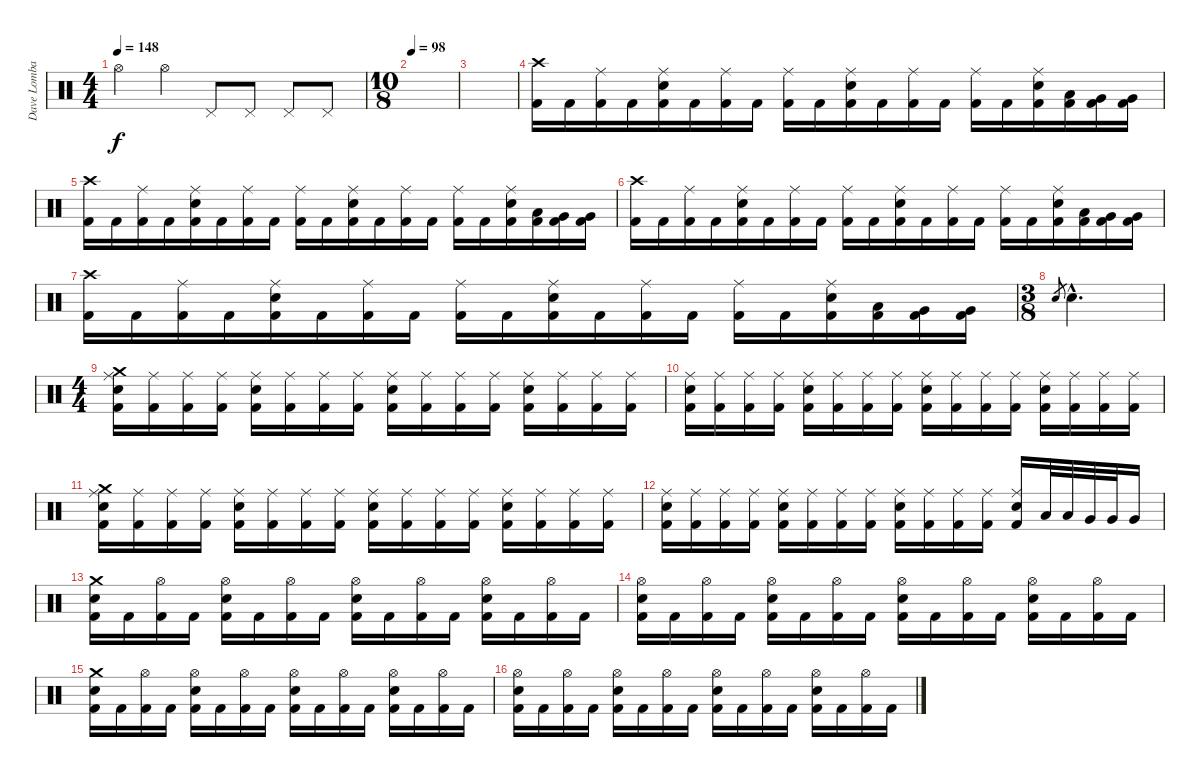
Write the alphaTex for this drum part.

\track ("Dave Lombardo" "Dave Lomba") {instrument percussion}
\staff {score}
\articulation defaults
\ts (4 4)
\tempo 148
\tempo 98
\tempo 148
\clef neutral
\ks c "Hi-Hat (open)".4{dy f} "Hi-Hat (open)".4 "Pedal Hi-Hat (hit)".8 "Pedal Hi-Hat (hit)".8 "Pedal Hi-Hat (hit)".8 "Pedal Hi-Hat (hit)".8
|
\ts (10 8)
\tempo 98
|
|
("Crash high (hit)" "Kick (hit) 2").16 "Kick (hit) 2".16 ("Ride (middle)" "Kick (hit) 2").16 "Kick (hit) 2".16 ("Electric Snare (hit)" "Ride (middle)" "Kick (hit) 2").16 "Kick (hit) 2".16 ("Ride (middle)" "Kick (hit) 2").16 "Kick (hit) 2".16 ("Ride (middle)" "Kick (hit) 2").16 "Kick (hit) 2".16 ("Electric Snare (hit)" "Ride (middle)" "Kick (hit) 2").16 "Kick (hit) 2".16 ("Ride (middle)" "Kick (hit) 2").16 "Kick (hit) 2".16 ("Ride (middle)" "Kick (hit) 2").16 "Kick (hit) 2".16 ("Electric Snare (hit)" "Ride (middle)" "Kick (hit) 2").16 ("Low Tom (hit)" "Kick (hit) 2").16 ("Very Low Tom (hit)" "Kick (hit) 2").16 ("Very Low Tom (hit)" "Kick (hit) 2").16 |
("Crash high (hit)" "Kick (hit) 2").16 "Kick (hit) 2".16 ("Ride (middle)" "Kick (hit) 2").16 "Kick (hit) 2".16 ("Electric Snare (hit)" "Ride (middle)" "Kick (hit) 2").16 "Kick (hit) 2".16 ("Ride (middle)" "Kick (hit) 2").16 "Kick (hit) 2".16 ("Ride (middle)" "Kick (hit) 2").16 "Kick (hit) 2".16 ("Electric Snare (hit)" "Ride (middle)" "Kick (hit) 2").16 "Kick (hit) 2".16 ("Ride (middle)" "Kick (hit) 2").16 "Kick (hit) 2".16 ("Ride (middle)" "Kick (hit) 2").16 "Kick (hit) 2".16 ("Electric Snare (hit)" "Ride (middle)" "Kick (hit) 2").16 ("Low Tom (hit)" "Kick (hit) 2").16 ("Very Low Tom (hit)" "Kick (hit) 2").16 ("Very Low Tom (hit)" "Kick (hit) 2").16 |
("Crash high (hit)" "Kick (hit) 2").16 "Kick (hit) 2".16 ("Ride (middle)" "Kick (hit) 2").16 "Kick (hit) 2".16 ("Electric Snare (hit)" "Ride (middle)" "Kick (hit) 2").16 "Kick (hit) 2".16 ("Ride (middle)" "Kick (hit) 2").16 "Kick (hit) 2".16 ("Ride (middle)" "Kick (hit) 2").16 "Kick (hit) 2".16 ("Electric Snare (hit)" "Ride (middle)" "Kick (hit) 2").16 "Kick (hit) 2".16 ("Ride (middle)" "Kick (hit) 2").16 "Kick (hit) 2".16 ("Ride (middle)" "Kick (hit) 2").16 "Kick (hit) 2".16 ("Electric Snare (hit)" "Ride (middle)" "Kick (hit) 2").16 ("Low Tom (hit)" "Kick (hit) 2").16 ("Very Low Tom (hit)" "Kick (hit) 2").16 ("Very Low Tom (hit)" "Kick (hit) 2").16 |
("Crash high (hit)" "Kick (hit) 2").16 "Kick (hit) 2".16 ("Ride (middle)" "Kick (hit) 2").16 "Kick (hit) 2".16 ("Electric Snare (hit)" "Ride (middle)" "Kick (hit) 2").16 "Kick (hit) 2".16 ("Ride (middle)" "Kick (hit) 2").16 "Kick (hit) 2".16 ("Ride (middle)" "Kick (hit) 2").16 "Kick (hit) 2".16 ("Electric Snare (hit)" "Ride (middle)" "Kick (hit) 2").16 "Kick (hit) 2".16 ("Ride (middle)" "Kick (hit) 2").16 "Kick (hit) 2".16 ("Ride (middle)" "Kick (hit) 2").16 "Kick (hit) 2".16 ("Electric Snare (hit)" "Ride (middle)" "Kick (hit) 2").16 ("Low Tom (hit)" "Kick (hit) 2").16 ("Very Low Tom (hit)" "Kick (hit) 2").16 ("Very Low Tom (hit)" "Kick (hit) 2").16 |
\ts (3 8)
"Electric Snare (hit)".8{gr} "Electric Snare (hit)"{hac}.4{d} |
\ts (4 4)
("Crash medium (hit)" "Electric Snare (hit)" "Ride (middle)" "Kick (hit) 2").16 ("Ride (middle)" "Kick (hit) 2").16 ("Ride (middle)" "Kick (hit) 2").16 ("Ride (middle)" "Kick (hit) 2").16 ("Electric Snare (hit)" "Ride (middle)" "Kick (hit) 2").16 ("Ride (middle)" "Kick (hit) 2").16 ("Ride (middle)" "Kick (hit) 2").16 ("Ride (middle)" "Kick (hit) 2").16 ("Electric Snare (hit)" "Ride (middle)" "Kick (hit) 2").16 ("Ride (middle)" "Kick (hit) 2").16 ("Ride (middle)" "Kick (hit) 2").16 ("Ride (middle)" "Kick (hit) 2").16 ("Electric Snare (hit)" "Ride (middle)" "Kick (hit) 2").16 ("Ride (middle)" "Kick (hit) 2").16 ("Ride (middle)" "Kick (hit) 2").16 ("Ride (middle)" "Kick (hit) 2").16 |
("Electric Snare (hit)" "Ride (middle)" "Kick (hit) 2").16 ("Ride (middle)" "Kick (hit) 2").16 ("Ride (middle)" "Kick (hit) 2").16 ("Ride (middle)" "Kick (hit) 2").16 ("Electric Snare (hit)" "Ride (middle)" "Kick (hit) 2").16 ("Ride (middle)" "Kick (hit) 2").16 ("Ride (middle)" "Kick (hit) 2").16 ("Ride (middle)" "Kick (hit) 2").16 ("Electric Snare (hit)" "Ride (middle)" "Kick (hit) 2").16 ("Ride (middle)" "Kick (hit) 2").16 ("Ride (middle)" "Kick (hit) 2").16 ("Ride (middle)" "Kick (hit) 2").16 ("Electric Snare (hit)" "Ride (middle)" "Kick (hit) 2").16 ("Ride (middle)" "Kick (hit) 2").16 ("Ride (middle)" "Kick (hit) 2").16 ("Ride (middle)" "Kick (hit) 2").16 |
("Crash medium (hit)" "Electric Snare (hit)" "Ride (middle)" "Kick (hit) 2").16 ("Ride (middle)" "Kick (hit) 2").16 ("Ride (middle)" "Kick (hit) 2").16 ("Ride (middle)" "Kick (hit) 2").16 ("Electric Snare (hit)" "Ride (middle)" "Kick (hit) 2").16 ("Ride (middle)" "Kick (hit) 2").16 ("Ride (middle)" "Kick (hit) 2").16 ("Ride (middle)" "Kick (hit) 2").16 ("Electric Snare (hit)" "Ride (middle)" "Kick (hit) 2").16 ("Ride (middle)" "Kick (hit) 2").16 ("Ride (middle)" "Kick (hit) 2").16 ("Ride (middle)" "Kick (hit) 2").16 ("Electric Snare (hit)" "Ride (middle)" "Kick (hit) 2").16 ("Ride (middle)" "Kick (hit) 2").16 ("Ride (middle)" "Kick (hit) 2").16 ("Ride (middle)" "Kick (hit) 2").16 |
("Electric Snare (hit)" "Ride (middle)" "Kick (hit) 2").16 ("Ride (middle)" "Kick (hit) 2").16 ("Ride (middle)" "Kick (hit) 2").16 ("Ride (middle)" "Kick (hit) 2").16 ("Electric Snare (hit)" "Ride (middle)" "Kick (hit) 2").16 ("Ride (middle)" "Kick (hit) 2").16 ("Ride (middle)" "Kick (hit) 2").16 ("Ride (middle)" "Kick (hit) 2").16 ("Electric Snare (hit)" "Ride (middle)" "Kick (hit) 2").16 ("Ride (middle)" "Kick (hit) 2").16 ("Ride (middle)" "Kick (hit) 2").16 ("Ride (middle)" "Kick (hit) 2").16 ("Electric Snare (hit)" "Ride (middle)" "Kick (hit) 2").16 "Low Tom (hit)".32 "Low Tom (hit)".32 "Very Low Tom (hit)".32 "Very Low Tom (hit)".32 "Very Low Tom (hit)".16 |
("Electric Snare (hit)" "Crash medium (hit)" "Kick (hit) 2").16 "Kick (hit) 2".16 ("Hi-Hat (open)" "Kick (hit) 2").16 "Kick (hit) 2".16 ("Electric Snare (hit)" "Hi-Hat (open)" "Kick (hit) 2").16 "Kick (hit) 2".16 ("Hi-Hat (open)" "Kick (hit) 2").16 "Kick (hit) 2".16 ("Electric Snare (hit)" "Hi-Hat (open)" "Kick (hit) 2").16 "Kick (hit) 2".16 ("Hi-Hat (open)" "Kick (hit) 2").16 "Kick (hit) 2".16 ("Electric Snare (hit)" "Hi-Hat (open)" "Kick (hit) 2").16 "Kick (hit) 2".16 ("Hi-Hat (open)" "Kick (hit) 2").16 "Kick (hit) 2".16 |
("Electric Snare (hit)" "Hi-Hat (open)" "Kick (hit) 2").16 "Kick (hit) 2".16 ("Hi-Hat (open)" "Kick (hit) 2").16 "Kick (hit) 2".16 ("Electric Snare (hit)" "Hi-Hat (open)" "Kick (hit) 2").16 "Kick (hit) 2".16 ("Hi-Hat (open)" "Kick (hit) 2").16 "Kick (hit) 2".16 ("Electric Snare (hit)" "Hi-Hat (open)" "Kick (hit) 2").16 "Kick (hit) 2".16 ("Hi-Hat (open)" "Kick (hit) 2").16 "Kick (hit) 2".16 ("Electric Snare (hit)" "Hi-Hat (open)" "Kick (hit) 2").16 "Kick (hit) 2".16 ("Hi-Hat (open)" "Kick (hit) 2").16 "Kick (hit) 2".16 |
("Electric Snare (hit)" "Crash medium (hit)" "Kick (hit) 2").16 "Kick (hit) 2".16 ("Hi-Hat (open)" "Kick (hit) 2").16 "Kick (hit) 2".16 ("Electric Snare (hit)" "Hi-Hat (open)" "Kick (hit) 2").16 "Kick (hit) 2".16 ("Hi-Hat (open)" "Kick (hit) 2").16 "Kick (hit) 2".16 ("Electric Snare (hit)" "Hi-Hat (open)" "Kick (hit) 2").16 "Kick (hit) 2".16 ("Hi-Hat (open)" "Kick (hit) 2").16 "Kick (hit) 2".16 ("Electric Snare (hit)" "Hi-Hat (open)" "Kick (hit) 2").16 "Kick (hit) 2".16 ("Hi-Hat (open)" "Kick (hit) 2").16 "Kick (hit) 2".16 |
("Electric Snare (hit)" "Hi-Hat (open)" "Kick (hit) 2").16 "Kick (hit) 2".16 ("Hi-Hat (open)" "Kick (hit) 2").16 "Kick (hit) 2".16 ("Electric Snare (hit)" "Hi-Hat (open)" "Kick (hit) 2").16 "Kick (hit) 2".16 ("Hi-Hat (open)" "Kick (hit) 2").16 "Kick (hit) 2".16 ("Electric Snare (hit)" "Hi-Hat (open)" "Kick (hit) 2").16 "Kick (hit) 2".16 ("Hi-Hat (open)" "Kick (hit) 2").16 "Kick (hit) 2".16 ("Electric Snare (hit)" "Hi-Hat (open)" "Kick (hit) 2").16 "Kick (hit) 2".16 ("Hi-Hat (open)" "Kick (hit) 2").16 "Kick (hit) 2".16
